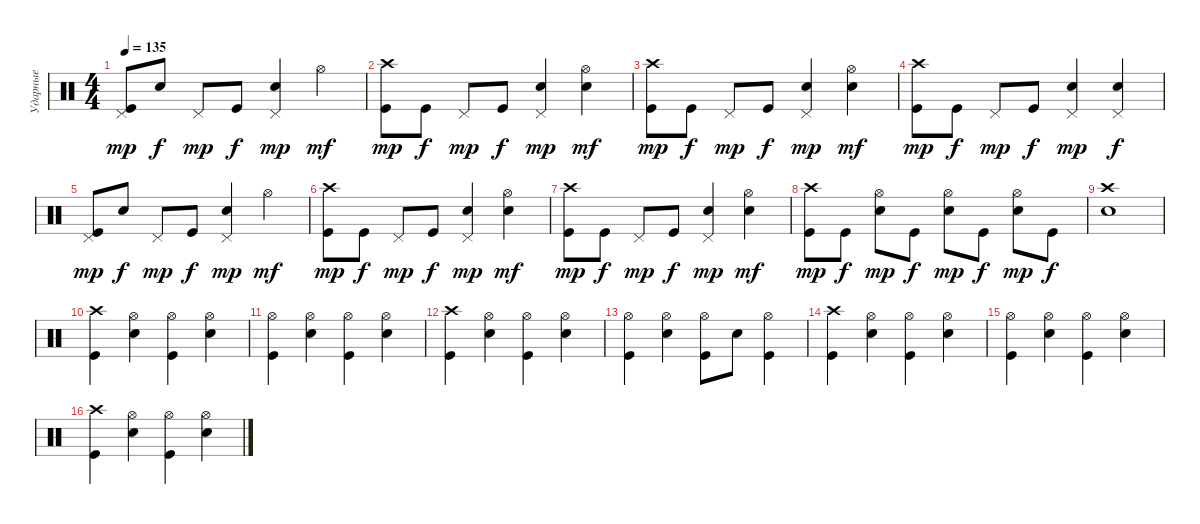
\track ("Ударные" "Ударные") {instrument percussion}
\staff {score}
\articulation defaults
\ts (4 4)
\tempo 135
\clef neutral
\ks c
("Pedal Hi-Hat (hit)" "Kick (hit)").8{dy mp} "Snare (hit) 2".8{dy f} "Pedal Hi-Hat (hit)".8{dy mp} "Kick (hit)".8{dy f} ("Pedal Hi-Hat (hit)" "Snare (hit) 2").4{dy mp} "Hi-Hat (open)".4{dy mf} |
("Crash high (hit)" "Kick (hit)").8{dy mp} "Kick (hit)".8{dy f} "Pedal Hi-Hat (hit)".8{dy mp} "Kick (hit)".8{dy f} ("Pedal Hi-Hat (hit)" "Snare (hit) 2").4{dy mp} ("Hi-Hat (open)" "Snare (hit) 2").4{dy mf} |
("Crash high (hit)" "Kick (hit)").8{dy mp} "Kick (hit)".8{dy f} "Pedal Hi-Hat (hit)".8{dy mp} "Kick (hit)".8{dy f} ("Pedal Hi-Hat (hit)" "Snare (hit) 2").4{dy mp} ("Hi-Hat (open)" "Snare (hit) 2").4{dy mf} |
("Crash high (hit)" "Kick (hit)").8{dy mp} "Kick (hit)".8{dy f} "Pedal Hi-Hat (hit)".8{dy mp} "Kick (hit)".8{dy f} ("Pedal Hi-Hat (hit)" "Snare (hit) 2").4{dy mp} ("Pedal Hi-Hat (hit)" "Snare (hit) 2").4{dy f} |
("Pedal Hi-Hat (hit)" "Kick (hit)").8{dy mp} "Snare (hit) 2".8{dy f} "Pedal Hi-Hat (hit)".8{dy mp} "Kick (hit)".8{dy f} ("Pedal Hi-Hat (hit)" "Snare (hit) 2").4{dy mp} "Hi-Hat (open)".4{dy mf} |
("Crash high (hit)" "Kick (hit)").8{dy mp} "Kick (hit)".8{dy f} "Pedal Hi-Hat (hit)".8{dy mp} "Kick (hit)".8{dy f} ("Pedal Hi-Hat (hit)" "Snare (hit) 2").4{dy mp} ("Hi-Hat (open)" "Snare (hit) 2").4{dy mf} |
("Crash high (hit)" "Kick (hit)").8{dy mp} "Kick (hit)".8{dy f} "Pedal Hi-Hat (hit)".8{dy mp} "Kick (hit)".8{dy f} ("Pedal Hi-Hat (hit)" "Snare (hit) 2").4{dy mp} ("Hi-Hat (open)" "Snare (hit) 2").4{dy mf} |
("Crash high (hit)" "Kick (hit)").8{dy mp} "Kick (hit)".8{dy f} ("Hi-Hat (open)" "Snare (hit) 2").8{dy mp} "Kick (hit)".8{dy f} ("Hi-Hat (open)" "Snare (hit) 2").8{dy mp} "Kick (hit)".8{dy f} ("Hi-Hat (open)" "Snare (hit) 2").8{dy mp} "Kick (hit)".8{dy f} |
("Crash high (hit)" "Snare (hit) 2").1 |
("Crash high (hit)" "Kick (hit)").4 ("Hi-Hat (open)" "Snare (hit) 2").4 ("Hi-Hat (open)" "Kick (hit)").4 ("Hi-Hat (open)" "Snare (hit) 2").4 |
("Hi-Hat (open)" "Kick (hit)").4 ("Hi-Hat (open)" "Snare (hit) 2").4 ("Hi-Hat (open)" "Kick (hit)").4 ("Hi-Hat (open)" "Snare (hit) 2").4 |
("Crash high (hit)" "Kick (hit)").4 ("Hi-Hat (open)" "Snare (hit) 2").4 ("Hi-Hat (open)" "Kick (hit)").4 ("Hi-Hat (open)" "Snare (hit) 2").4 |
("Hi-Hat (open)" "Kick (hit)").4 ("Hi-Hat (open)" "Snare (hit) 2").4 ("Hi-Hat (open)" "Kick (hit)").8 "Snare (hit) 2".8 ("Hi-Hat (open)" "Kick (hit)").4 |
("Crash high (hit)" "Kick (hit)").4 ("Hi-Hat (open)" "Snare (hit) 2").4 ("Hi-Hat (open)" "Kick (hit)").4 ("Hi-Hat (open)" "Snare (hit) 2").4 |
("Hi-Hat (open)" "Kick (hit)").4 ("Hi-Hat (open)" "Snare (hit) 2").4 ("Hi-Hat (open)" "Kick (hit)").4 ("Hi-Hat (open)" "Snare (hit) 2").4 |
("Crash high (hit)" "Kick (hit)").4 ("Hi-Hat (open)" "Snare (hit) 2").4 ("Hi-Hat (open)" "Kick (hit)").4 ("Hi-Hat (open)" "Snare (hit) 2").4
